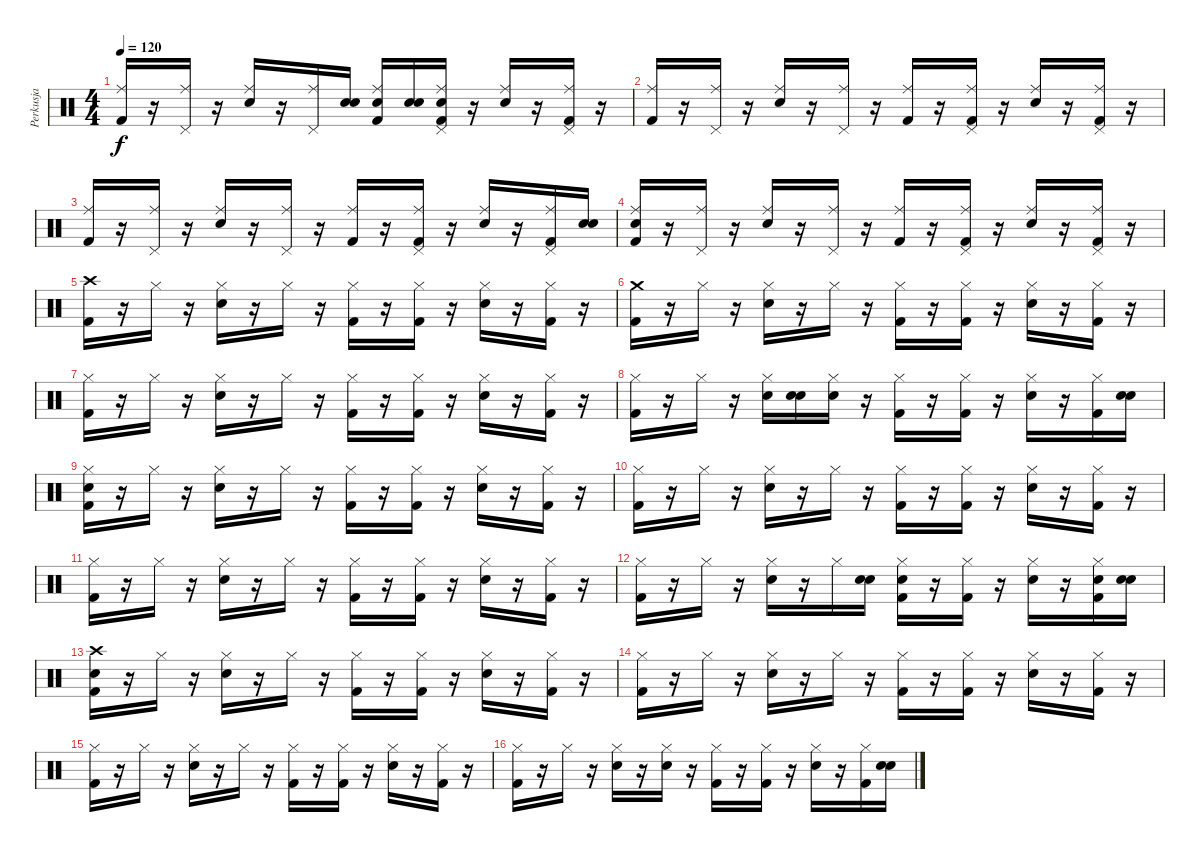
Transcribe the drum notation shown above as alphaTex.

\track ("Perkusja" "Perkusja") {instrument percussion}
\staff {score}
\articulation defaults
\ts (4 4)
\tempo 120
\clef neutral
\ks c
("Kick (hit) 2" "Ride (middle)").16{dy f} r.16 ("Ride (middle)" "Pedal Hi-Hat (hit)").16 r.16 ("Ride (middle)" "Snare (hit) 2").16 r.16 ("Ride (middle)" "Pedal Hi-Hat (hit)").16 ("Snare (hit)" "Snare (hit) 2").16 ("Snare (hit)" "Ride (middle)" "Kick (hit) 2").16 ("Snare (hit)" "Snare (hit) 2").16 ("Snare (hit)" "Pedal Hi-Hat (hit)" "Kick (hit) 2" "Ride (middle)").16 r.16 ("Snare (hit) 2" "Ride (middle)").16 r.16 ("Kick (hit) 2" "Ride (middle)" "Pedal Hi-Hat (hit)").16 r.16 |
("Ride (middle)" "Kick (hit) 2").16 r.16 ("Ride (middle)" "Pedal Hi-Hat (hit)").16 r.16 ("Snare (hit) 2" "Ride (middle)").16 r.16 ("Pedal Hi-Hat (hit)" "Ride (middle)").16 r.16 ("Ride (middle)" "Kick (hit) 2").16 r.16 ("Kick (hit) 2" "Pedal Hi-Hat (hit)" "Ride (middle)").16 r.16 ("Ride (middle)" "Snare (hit) 2").16 r.16 ("Ride (middle)" "Pedal Hi-Hat (hit)" "Kick (hit) 2").16 r.16 |
("Ride (middle)" "Kick (hit) 2").16 r.16 ("Ride (middle)" "Pedal Hi-Hat (hit)").16 r.16 ("Ride (middle)" "Snare (hit) 2").16 r.16 ("Ride (middle)" "Pedal Hi-Hat (hit)").16 r.16 ("Kick (hit) 2" "Ride (middle)").16 r.16 ("Pedal Hi-Hat (hit)" "Ride (middle)" "Kick (hit) 2").16 r.16 ("Snare (hit) 2" "Ride (middle)").16 r.16 ("Kick (hit) 2" "Pedal Hi-Hat (hit)" "Ride (middle)").16 ("Snare (hit)" "Snare (hit) 2").16 |
("Snare (hit)" "Ride (middle)" "Kick (hit) 2").16 r.16 ("Ride (middle)" "Pedal Hi-Hat (hit)").16 r.16 ("Ride (middle)" "Snare (hit) 2").16 r.16 ("Pedal Hi-Hat (hit)" "Ride (middle)").16 r.16 ("Kick (hit) 2" "Ride (middle)").16 r.16 ("Ride (middle)" "Kick (hit) 2" "Pedal Hi-Hat (hit)").16 r.16 ("Ride (middle)" "Snare (hit) 2").16 r.16 ("Ride (middle)" "Kick (hit) 2" "Pedal Hi-Hat (hit)").16 r.16 |
("Crash high (hit)" "Kick (hit) 2").16 r.16 "Hi-Hat (closed)".16 r.16 ("Snare (hit) 2" "Hi-Hat (closed)").16 r.16 "Hi-Hat (closed)".16 r.16 ("Kick (hit) 2" "Hi-Hat (closed)").16 r.16 ("Hi-Hat (closed)" "Kick (hit) 2").16 r.16 ("Hi-Hat (closed)" "Snare (hit) 2").16 r.16 ("Hi-Hat (closed)" "Kick (hit) 2").16 r.16 |
("Kick (hit) 2" "Crash medium (hit)").16 r.16 "Hi-Hat (closed)".16 r.16 ("Hi-Hat (closed)" "Snare (hit) 2").16 r.16 "Hi-Hat (closed)".16 r.16 ("Hi-Hat (closed)" "Kick (hit) 2").16 r.16 ("Kick (hit) 2" "Hi-Hat (closed)").16 r.16 ("Snare (hit) 2" "Hi-Hat (closed)").16 r.16 ("Hi-Hat (closed)" "Kick (hit) 2").16 r.16 |
("Kick (hit) 2" "Hi-Hat (closed)").16 r.16 "Hi-Hat (closed)".16 r.16 ("Snare (hit) 2" "Hi-Hat (closed)").16 r.16 "Hi-Hat (closed)".16 r.16 ("Kick (hit) 2" "Hi-Hat (closed)").16 r.16 ("Hi-Hat (closed)" "Kick (hit) 2").16 r.16 ("Hi-Hat (closed)" "Snare (hit) 2").16 r.16 ("Kick (hit) 2" "Hi-Hat (closed)").16 r.16 |
("Hi-Hat (closed)" "Kick (hit) 2").16 r.16 "Hi-Hat (closed)".16 r.16 ("Snare (hit) 2" "Hi-Hat (closed)").16 ("Snare (hit)" "Snare (hit) 2").16 ("Snare (hit)" "Hi-Hat (closed)").16 r.16 ("Hi-Hat (closed)" "Kick (hit) 2").16 r.16 ("Kick (hit) 2" "Hi-Hat (closed)").16 r.16 ("Hi-Hat (closed)" "Snare (hit) 2").16 r.16 ("Hi-Hat (closed)" "Kick (hit) 2").16 ("Snare (hit)" "Snare (hit) 2").16 |
("Snare (hit)" "Kick (hit) 2" "Hi-Hat (closed)").16 r.16 "Hi-Hat (closed)".16 r.16 ("Hi-Hat (closed)" "Snare (hit) 2").16 r.16 "Hi-Hat (closed)".16 r.16 ("Hi-Hat (closed)" "Kick (hit) 2").16 r.16 ("Hi-Hat (closed)" "Kick (hit) 2").16 r.16 ("Hi-Hat (closed)" "Snare (hit) 2").16 r.16 ("Hi-Hat (closed)" "Kick (hit) 2").16 r.16 |
("Hi-Hat (closed)" "Kick (hit) 2").16 r.16 "Hi-Hat (closed)".16 r.16 ("Snare (hit) 2" "Hi-Hat (closed)").16 r.16 "Hi-Hat (closed)".16 r.16 ("Hi-Hat (closed)" "Kick (hit) 2").16 r.16 ("Kick (hit) 2" "Hi-Hat (closed)").16 r.16 ("Hi-Hat (closed)" "Snare (hit) 2").16 r.16 ("Hi-Hat (closed)" "Kick (hit) 2").16 r.16 |
("Hi-Hat (closed)" "Kick (hit) 2").16 r.16 "Hi-Hat (closed)".16 r.16 ("Snare (hit) 2" "Hi-Hat (closed)").16 r.16 "Hi-Hat (closed)".16 r.16 ("Hi-Hat (closed)" "Kick (hit) 2").16 r.16 ("Kick (hit) 2" "Hi-Hat (closed)").16 r.16 ("Snare (hit) 2" "Hi-Hat (closed)").16 r.16 ("Kick (hit) 2" "Hi-Hat (closed)").16 r.16 |
("Kick (hit) 2" "Hi-Hat (closed)").16 r.16 "Hi-Hat (closed)".16 r.16 ("Snare (hit) 2" "Hi-Hat (closed)").16 r.16 "Hi-Hat (closed)".16 ("Snare (hit)" "Snare (hit) 2").16 ("Snare (hit)" "Kick (hit) 2" "Hi-Hat (closed)").16 r.16 ("Kick (hit) 2" "Hi-Hat (closed)").16 r.16 ("Hi-Hat (closed)" "Snare (hit) 2").16 r.16 ("Snare (hit) 2" "Kick (hit) 2" "Hi-Hat (closed)").16 ("Snare (hit)" "Snare (hit) 2").16 |
("Snare (hit)" "Crash high (hit)" "Kick (hit) 2").16 r.16 "Hi-Hat (closed)".16 r.16 ("Snare (hit) 2" "Hi-Hat (closed)").16 r.16 "Hi-Hat (closed)".16 r.16 ("Kick (hit) 2" "Hi-Hat (closed)").16 r.16 ("Kick (hit) 2" "Hi-Hat (closed)").16 r.16 ("Snare (hit) 2" "Hi-Hat (closed)").16 r.16 ("Kick (hit) 2" "Hi-Hat (closed)").16 r.16 |
("Kick (hit) 2" "Hi-Hat (closed)").16 r.16 "Hi-Hat (closed)".16 r.16 ("Hi-Hat (closed)" "Snare (hit) 2").16 r.16 "Hi-Hat (closed)".16 r.16 ("Kick (hit) 2" "Hi-Hat (closed)").16 r.16 ("Hi-Hat (closed)" "Kick (hit) 2").16 r.16 ("Hi-Hat (closed)" "Snare (hit) 2").16 r.16 ("Hi-Hat (closed)" "Kick (hit) 2").16 r.16 |
("Hi-Hat (closed)" "Kick (hit) 2").16 r.16 "Hi-Hat (closed)".16 r.16 ("Snare (hit) 2" "Hi-Hat (closed)").16 r.16 "Hi-Hat (closed)".16 r.16 ("Hi-Hat (closed)" "Kick (hit) 2").16 r.16 ("Kick (hit) 2" "Hi-Hat (closed)").16 r.16 ("Hi-Hat (closed)" "Snare (hit) 2").16 r.16 ("Hi-Hat (closed)" "Kick (hit) 2").16 r.16 |
("Hi-Hat (closed)" "Kick (hit) 2").16 r.16 "Hi-Hat (closed)".16 r.16 ("Hi-Hat (closed)" "Snare (hit) 2").16 r.16 ("Hi-Hat (closed)" "Snare (hit) 2").16 r.16 ("Kick (hit) 2" "Hi-Hat (closed)").16 r.16 ("Kick (hit) 2" "Hi-Hat (closed)").16 r.16 ("Hi-Hat (closed)" "Snare (hit) 2").16 r.16 ("Kick (hit) 2" "Hi-Hat (closed)").16 ("Snare (hit)" "Snare (hit) 2").16
